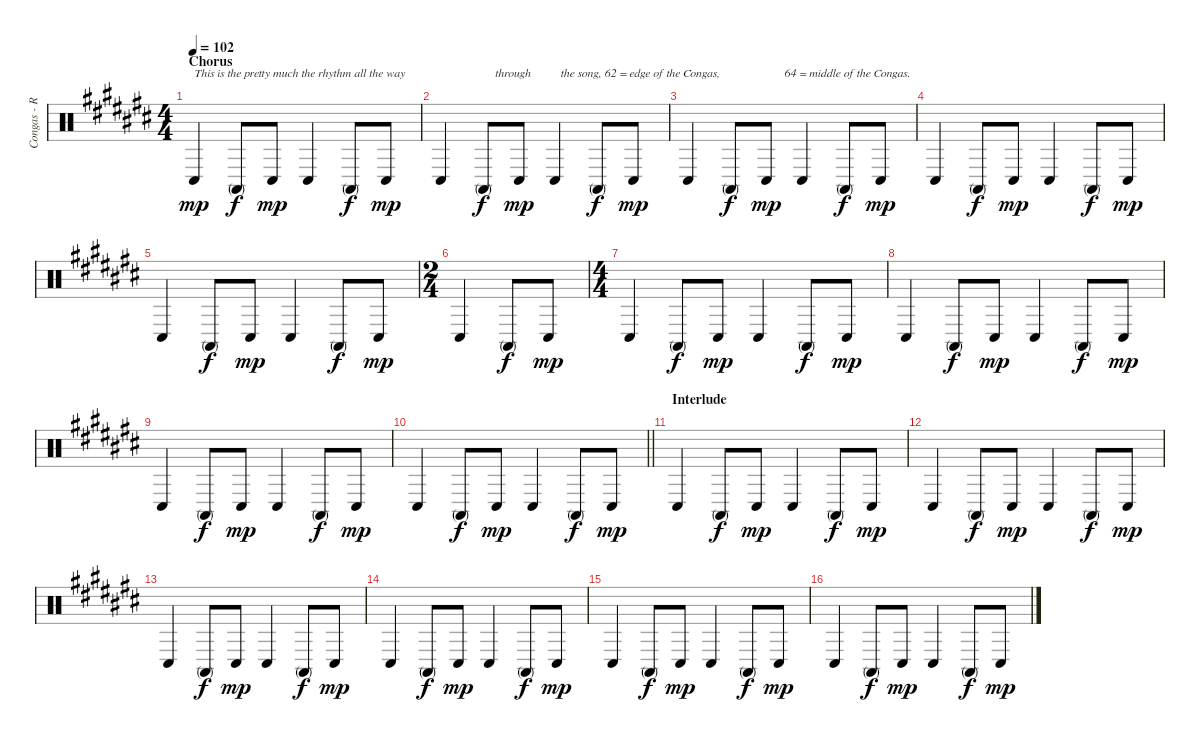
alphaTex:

\track ("Congas - Ross Kunkel" "Congas - R") {instrument percussion}
\staff {score}
\articulation defaults
\ts (4 4)
\section ("" "Chorus")
\tempo 102
\clef neutral
\ks c# "Conga low (hit)".4{txt "This is the pretty much the rhythm all the way" dy mp} "Conga high (mute)".8{dy f} "Conga low (hit)".8{dy mp} "Conga low (hit)".4 "Conga high (mute)".8{dy f} "Conga low (hit)".8{dy mp}
|
"Conga low (hit)".4 "Conga high (mute)".8{txt "    through" dy f} "Conga low (hit)".8{dy mp} "Conga low (hit)".4{txt "  the song, 62 = edge of the Congas,"} "Conga high (mute)".8{dy f} "Conga low (hit)".8{dy mp} |
"Conga low (hit)".4 "Conga high (mute)".8{dy f} "Conga low (hit)".8{txt "      64 = middle of the Congas." dy mp} "Conga low (hit)".4 "Conga high (mute)".8{dy f} "Conga low (hit)".8{dy mp} |
"Conga low (hit)".4 "Conga high (mute)".8{dy f} "Conga low (hit)".8{dy mp} "Conga low (hit)".4 "Conga high (mute)".8{dy f} "Conga low (hit)".8{dy mp} |
"Conga low (hit)".4 "Conga high (mute)".8{dy f} "Conga low (hit)".8{dy mp} "Conga low (hit)".4 "Conga high (mute)".8{dy f} "Conga low (hit)".8{dy mp} |
\ts (2 4)
"Conga low (hit)".4 "Conga high (mute)".8{dy f} "Conga low (hit)".8{dy mp} |
\ts (4 4)
"Conga low (hit)".4 "Conga high (mute)".8{dy f} "Conga low (hit)".8{dy mp} "Conga low (hit)".4 "Conga high (mute)".8{dy f} "Conga low (hit)".8{dy mp} |
"Conga low (hit)".4 "Conga high (mute)".8{dy f} "Conga low (hit)".8{dy mp} "Conga low (hit)".4 "Conga high (mute)".8{dy f} "Conga low (hit)".8{dy mp} |
"Conga low (hit)".4 "Conga high (mute)".8{dy f} "Conga low (hit)".8{dy mp} "Conga low (hit)".4 "Conga high (mute)".8{dy f} "Conga low (hit)".8{dy mp} |
\barLineRight lightlight "Conga low (hit)".4 "Conga high (mute)".8{dy f} "Conga low (hit)".8{dy mp} "Conga low (hit)".4 "Conga high (mute)".8{dy f} "Conga low (hit)".8{dy mp}
|
\section ("" "Interlude")
"Conga low (hit)".4 "Conga high (mute)".8{dy f} "Conga low (hit)".8{dy mp} "Conga low (hit)".4 "Conga high (mute)".8{dy f} "Conga low (hit)".8{dy mp} |
"Conga low (hit)".4 "Conga high (mute)".8{dy f} "Conga low (hit)".8{dy mp} "Conga low (hit)".4 "Conga high (mute)".8{dy f} "Conga low (hit)".8{dy mp} |
"Conga low (hit)".4 "Conga high (mute)".8{dy f} "Conga low (hit)".8{dy mp} "Conga low (hit)".4 "Conga high (mute)".8{dy f} "Conga low (hit)".8{dy mp} |
"Conga low (hit)".4 "Conga high (mute)".8{dy f} "Conga low (hit)".8{dy mp} "Conga low (hit)".4 "Conga high (mute)".8{dy f} "Conga low (hit)".8{dy mp} |
"Conga low (hit)".4 "Conga high (mute)".8{dy f} "Conga low (hit)".8{dy mp} "Conga low (hit)".4 "Conga high (mute)".8{dy f} "Conga low (hit)".8{dy mp} |
"Conga low (hit)".4 "Conga high (mute)".8{dy f} "Conga low (hit)".8{dy mp} "Conga low (hit)".4 "Conga high (mute)".8{dy f} "Conga low (hit)".8{dy mp}
